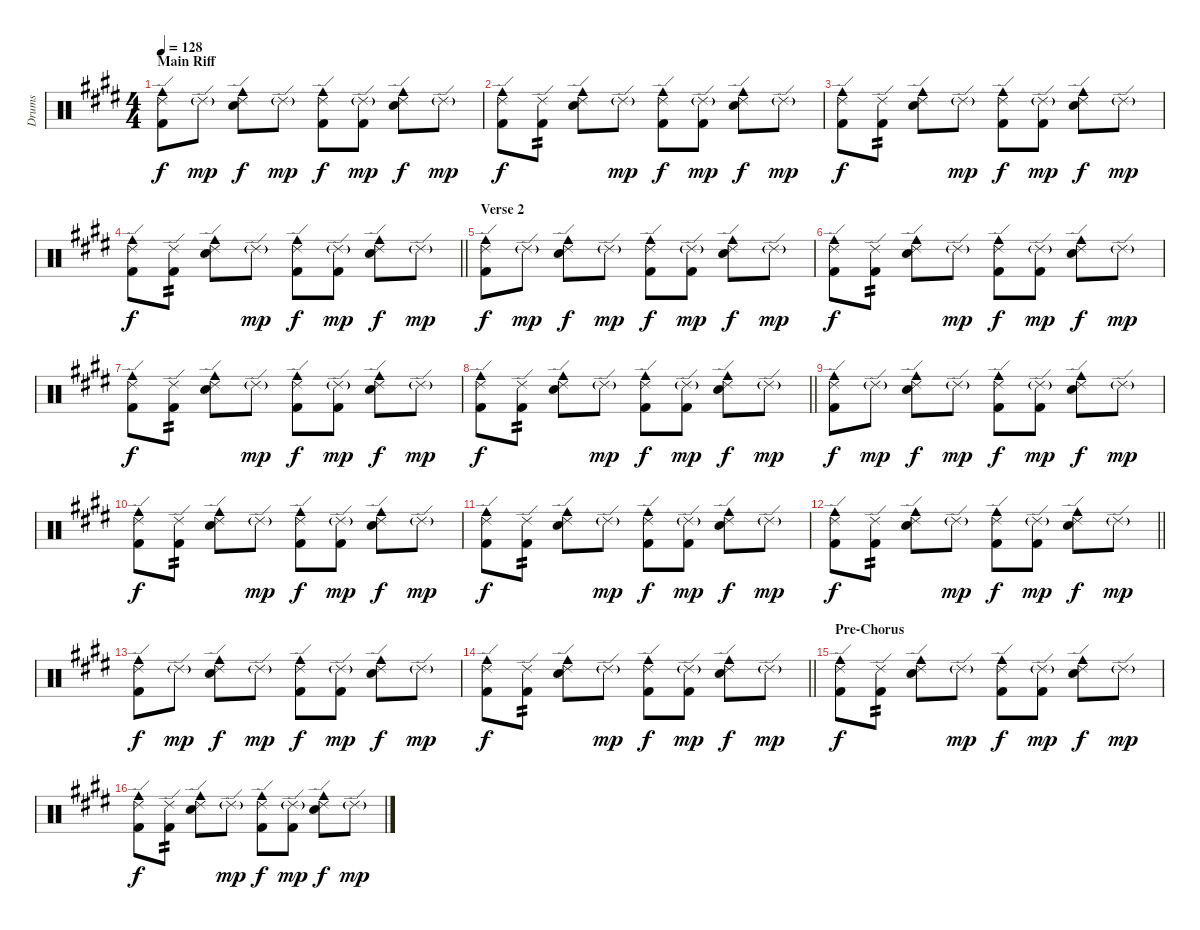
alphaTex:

\track ("Drums" "Drums") {instrument percussion}
\staff {score}
\articulation defaults
\ts (4 4)
\section ("" "Main Riff")
\tempo 128
\clef neutral
\ks c#minor
("Cowbell medium (hit)" "Ride (edge) 2" "Kick (hit) 2").8{dy f} "Ride (edge) 2"{g}.8{dy mp} ("Cowbell medium (hit)" "Ride (edge) 2" "Snare (hit) 2").8{dy f} "Ride (edge) 2"{g}.8{dy mp} ("Cowbell medium (hit)" "Ride (edge) 2" "Kick (hit) 2").8{dy f} ("Ride (edge) 2"{g} "Kick (hit) 2").8{dy mp} ("Cowbell medium (hit)" "Ride (edge) 2" "Snare (hit) 2").8{dy f} "Ride (edge) 2"{g}.8{dy mp} |
("Cowbell medium (hit)" "Ride (edge) 2" "Kick (hit) 2").8{dy f} ("Ride (edge) 2" "Kick (hit) 2").8{tp 2} ("Cowbell medium (hit)" "Ride (edge) 2" "Snare (hit) 2").8 "Ride (edge) 2"{g}.8{dy mp} ("Cowbell medium (hit)" "Ride (edge) 2" "Kick (hit) 2").8{dy f} ("Ride (edge) 2"{g} "Kick (hit) 2").8{dy mp} ("Cowbell medium (hit)" "Ride (edge) 2" "Snare (hit) 2").8{dy f} "Ride (edge) 2"{g}.8{dy mp} |
("Cowbell medium (hit)" "Ride (edge) 2" "Kick (hit) 2").8{dy f} ("Ride (edge) 2" "Kick (hit) 2").8{tp 2} ("Cowbell medium (hit)" "Ride (edge) 2" "Snare (hit) 2").8 "Ride (edge) 2"{g}.8{dy mp} ("Cowbell medium (hit)" "Ride (edge) 2" "Kick (hit) 2").8{dy f} ("Ride (edge) 2"{g} "Kick (hit) 2").8{dy mp} ("Cowbell medium (hit)" "Ride (edge) 2" "Snare (hit) 2").8{dy f} "Ride (edge) 2"{g}.8{dy mp} |
\barLineRight lightlight
("Cowbell medium (hit)" "Ride (edge) 2" "Kick (hit) 2").8{dy f} ("Ride (edge) 2" "Kick (hit) 2").8{tp 2} ("Cowbell medium (hit)" "Ride (edge) 2" "Snare (hit) 2").8 "Ride (edge) 2"{g}.8{dy mp} ("Cowbell medium (hit)" "Ride (edge) 2" "Kick (hit) 2").8{dy f} ("Ride (edge) 2"{g} "Kick (hit) 2").8{dy mp} ("Cowbell medium (hit)" "Ride (edge) 2" "Snare (hit) 2").8{dy f} "Ride (edge) 2"{g}.8{dy mp} |
\section ("" "Verse 2")
("Cowbell medium (hit)" "Ride (edge) 2" "Kick (hit) 2").8{dy f} "Ride (edge) 2"{g}.8{dy mp} ("Cowbell medium (hit)" "Ride (edge) 2" "Snare (hit) 2").8{dy f} "Ride (edge) 2"{g}.8{dy mp} ("Cowbell medium (hit)" "Ride (edge) 2" "Kick (hit) 2").8{dy f} ("Ride (edge) 2"{g} "Kick (hit) 2").8{dy mp} ("Cowbell medium (hit)" "Ride (edge) 2" "Snare (hit) 2").8{dy f} "Ride (edge) 2"{g}.8{dy mp} |
("Cowbell medium (hit)" "Ride (edge) 2" "Kick (hit) 2").8{dy f} ("Ride (edge) 2" "Kick (hit) 2").8{tp 2} ("Cowbell medium (hit)" "Ride (edge) 2" "Snare (hit) 2").8 "Ride (edge) 2"{g}.8{dy mp} ("Cowbell medium (hit)" "Ride (edge) 2" "Kick (hit) 2").8{dy f} ("Ride (edge) 2"{g} "Kick (hit) 2").8{dy mp} ("Cowbell medium (hit)" "Ride (edge) 2" "Snare (hit) 2").8{dy f} "Ride (edge) 2"{g}.8{dy mp} |
("Cowbell medium (hit)" "Ride (edge) 2" "Kick (hit) 2").8{dy f} ("Ride (edge) 2" "Kick (hit) 2").8{tp 2} ("Cowbell medium (hit)" "Ride (edge) 2" "Snare (hit) 2").8 "Ride (edge) 2"{g}.8{dy mp} ("Cowbell medium (hit)" "Ride (edge) 2" "Kick (hit) 2").8{dy f} ("Ride (edge) 2"{g} "Kick (hit) 2").8{dy mp} ("Cowbell medium (hit)" "Ride (edge) 2" "Snare (hit) 2").8{dy f} "Ride (edge) 2"{g}.8{dy mp} |
\barLineRight lightlight
("Cowbell medium (hit)" "Ride (edge) 2" "Kick (hit) 2").8{dy f} ("Ride (edge) 2" "Kick (hit) 2").8{tp 2} ("Cowbell medium (hit)" "Ride (edge) 2" "Snare (hit) 2").8 "Ride (edge) 2"{g}.8{dy mp} ("Cowbell medium (hit)" "Ride (edge) 2" "Kick (hit) 2").8{dy f} ("Ride (edge) 2"{g} "Kick (hit) 2").8{dy mp} ("Cowbell medium (hit)" "Ride (edge) 2" "Snare (hit) 2").8{dy f} "Ride (edge) 2"{g}.8{dy mp} |
("Cowbell medium (hit)" "Ride (edge) 2" "Kick (hit) 2").8{dy f} "Ride (edge) 2"{g}.8{dy mp} ("Cowbell medium (hit)" "Ride (edge) 2" "Snare (hit) 2").8{dy f} "Ride (edge) 2"{g}.8{dy mp} ("Cowbell medium (hit)" "Ride (edge) 2" "Kick (hit) 2").8{dy f} ("Ride (edge) 2"{g} "Kick (hit) 2").8{dy mp} ("Cowbell medium (hit)" "Ride (edge) 2" "Snare (hit) 2").8{dy f} "Ride (edge) 2"{g}.8{dy mp} |
("Cowbell medium (hit)" "Ride (edge) 2" "Kick (hit) 2").8{dy f} ("Ride (edge) 2" "Kick (hit) 2").8{tp 2} ("Cowbell medium (hit)" "Ride (edge) 2" "Snare (hit) 2").8 "Ride (edge) 2"{g}.8{dy mp} ("Cowbell medium (hit)" "Ride (edge) 2" "Kick (hit) 2").8{dy f} ("Ride (edge) 2"{g} "Kick (hit) 2").8{dy mp} ("Cowbell medium (hit)" "Ride (edge) 2" "Snare (hit) 2").8{dy f} "Ride (edge) 2"{g}.8{dy mp} |
("Cowbell medium (hit)" "Ride (edge) 2" "Kick (hit) 2").8{dy f} ("Ride (edge) 2" "Kick (hit) 2").8{tp 2} ("Cowbell medium (hit)" "Ride (edge) 2" "Snare (hit) 2").8 "Ride (edge) 2"{g}.8{dy mp} ("Cowbell medium (hit)" "Ride (edge) 2" "Kick (hit) 2").8{dy f} ("Ride (edge) 2"{g} "Kick (hit) 2").8{dy mp} ("Cowbell medium (hit)" "Ride (edge) 2" "Snare (hit) 2").8{dy f} "Ride (edge) 2"{g}.8{dy mp} |
\barLineRight lightlight
("Cowbell medium (hit)" "Ride (edge) 2" "Kick (hit) 2").8{dy f} ("Ride (edge) 2" "Kick (hit) 2").8{tp 2} ("Cowbell medium (hit)" "Ride (edge) 2" "Snare (hit) 2").8 "Ride (edge) 2"{g}.8{dy mp} ("Cowbell medium (hit)" "Ride (edge) 2" "Kick (hit) 2").8{dy f} ("Ride (edge) 2"{g} "Kick (hit) 2").8{dy mp} ("Cowbell medium (hit)" "Ride (edge) 2" "Snare (hit) 2").8{dy f} "Ride (edge) 2"{g}.8{dy mp} |
("Cowbell medium (hit)" "Ride (edge) 2" "Kick (hit) 2").8{dy f} "Ride (edge) 2"{g}.8{dy mp} ("Cowbell medium (hit)" "Ride (edge) 2" "Snare (hit) 2").8{dy f} "Ride (edge) 2"{g}.8{dy mp} ("Cowbell medium (hit)" "Ride (edge) 2" "Kick (hit) 2").8{dy f} ("Ride (edge) 2"{g} "Kick (hit) 2").8{dy mp} ("Cowbell medium (hit)" "Ride (edge) 2" "Snare (hit) 2").8{dy f} "Ride (edge) 2"{g}.8{dy mp} |
\barLineRight lightlight
("Cowbell medium (hit)" "Ride (edge) 2" "Kick (hit) 2").8{dy f} ("Ride (edge) 2" "Kick (hit) 2").8{tp 2} ("Cowbell medium (hit)" "Ride (edge) 2" "Snare (hit) 2").8 "Ride (edge) 2"{g}.8{dy mp} ("Cowbell medium (hit)" "Ride (edge) 2" "Kick (hit) 2").8{dy f} ("Ride (edge) 2"{g} "Kick (hit) 2").8{dy mp} ("Cowbell medium (hit)" "Ride (edge) 2" "Snare (hit) 2").8{dy f} "Ride (edge) 2"{g}.8{dy mp} |
\section ("" "Pre-Chorus")
("Cowbell medium (hit)" "Ride (edge) 2" "Kick (hit) 2").8{dy f} ("Ride (edge) 2" "Kick (hit) 2").8{tp 2} ("Cowbell medium (hit)" "Ride (edge) 2" "Snare (hit) 2").8 "Ride (edge) 2"{g}.8{dy mp} ("Cowbell medium (hit)" "Ride (edge) 2" "Kick (hit) 2").8{dy f} ("Ride (edge) 2"{g} "Kick (hit) 2").8{dy mp} ("Cowbell medium (hit)" "Ride (edge) 2" "Snare (hit) 2").8{dy f} "Ride (edge) 2"{g}.8{dy mp} |
("Cowbell medium (hit)" "Ride (edge) 2" "Kick (hit) 2").8{dy f} ("Ride (edge) 2" "Kick (hit) 2").8{tp 2} ("Cowbell medium (hit)" "Ride (edge) 2" "Snare (hit) 2").8 "Ride (edge) 2"{g}.8{dy mp} ("Cowbell medium (hit)" "Ride (edge) 2" "Kick (hit) 2").8{dy f} ("Ride (edge) 2"{g} "Kick (hit) 2").8{dy mp} ("Cowbell medium (hit)" "Ride (edge) 2" "Snare (hit) 2").8{dy f} "Ride (edge) 2"{g}.8{dy mp}
